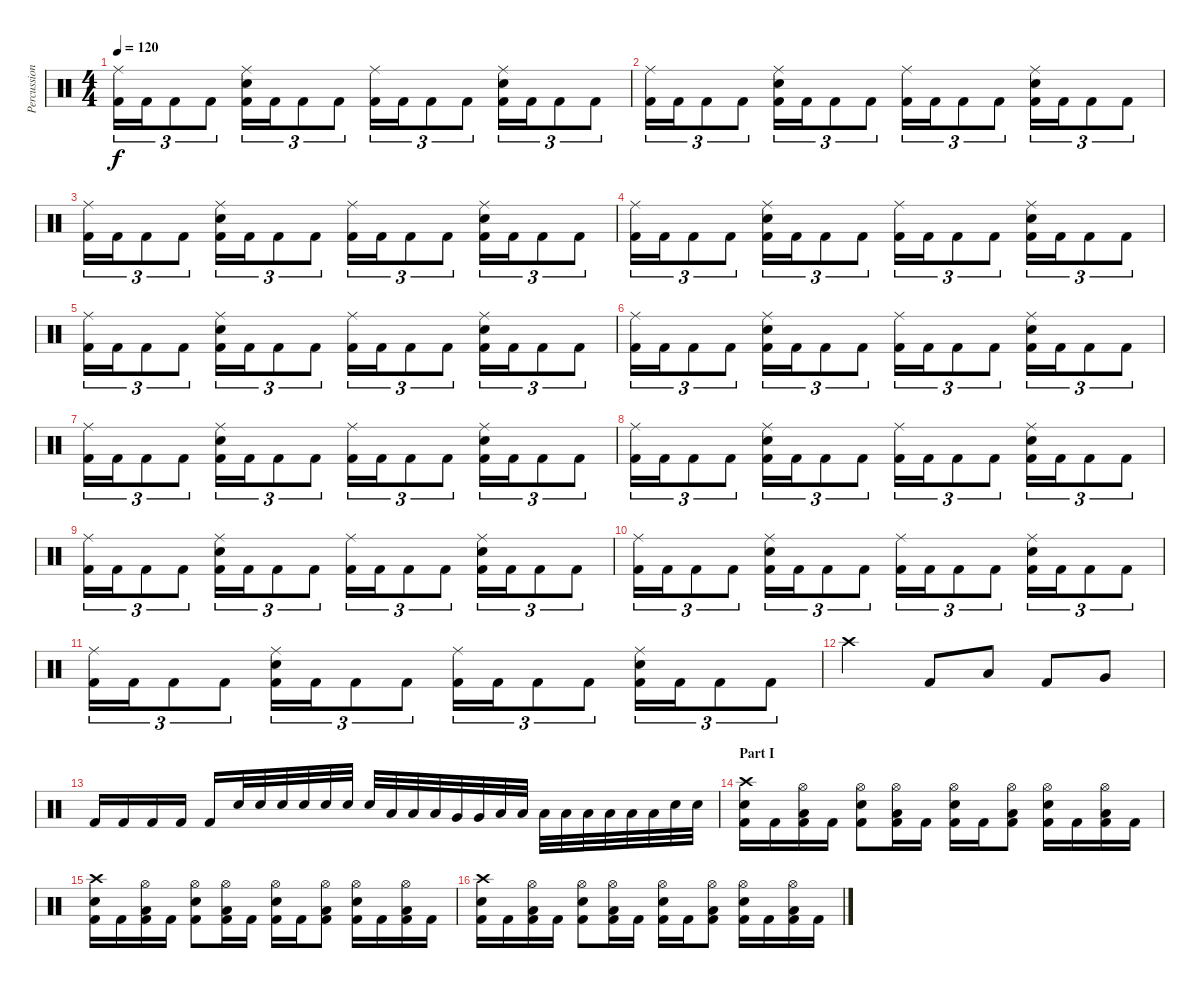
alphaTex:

\track ("Percussion" "Percussion") {instrument percussion}
\staff {score}
\articulation defaults
\ts (4 4)
\tempo 120
\clef neutral
\ks c
("Ride (middle)" "Kick (hit) 2").16{tu (3 2) dy f} "Kick (hit) 2".16{tu (3 2)} "Kick (hit) 2".8{tu (3 2)} "Kick (hit) 2".8{tu (3 2)} ("Ride (middle)" "Electric Snare (hit)" "Kick (hit) 2").16{tu (3 2)} "Kick (hit) 2".16{tu (3 2)} "Kick (hit) 2".8{tu (3 2)} "Kick (hit) 2".8{tu (3 2)} ("Ride (middle)" "Kick (hit) 2").16{tu (3 2)} "Kick (hit) 2".16{tu (3 2)} "Kick (hit) 2".8{tu (3 2)} "Kick (hit) 2".8{tu (3 2)} ("Ride (middle)" "Electric Snare (hit)" "Kick (hit) 2").16{tu (3 2)} "Kick (hit) 2".16{tu (3 2)} "Kick (hit) 2".8{tu (3 2)} "Kick (hit) 2".8{tu (3 2)} |
("Ride (middle)" "Kick (hit) 2").16{tu (3 2)} "Kick (hit) 2".16{tu (3 2)} "Kick (hit) 2".8{tu (3 2)} "Kick (hit) 2".8{tu (3 2)} ("Ride (middle)" "Electric Snare (hit)" "Kick (hit) 2").16{tu (3 2)} "Kick (hit) 2".16{tu (3 2)} "Kick (hit) 2".8{tu (3 2)} "Kick (hit) 2".8{tu (3 2)} ("Ride (middle)" "Kick (hit) 2").16{tu (3 2)} "Kick (hit) 2".16{tu (3 2)} "Kick (hit) 2".8{tu (3 2)} "Kick (hit) 2".8{tu (3 2)} ("Ride (middle)" "Electric Snare (hit)" "Kick (hit) 2").16{tu (3 2)} "Kick (hit) 2".16{tu (3 2)} "Kick (hit) 2".8{tu (3 2)} "Kick (hit) 2".8{tu (3 2)} |
("Ride (middle)" "Kick (hit) 2").16{tu (3 2)} "Kick (hit) 2".16{tu (3 2)} "Kick (hit) 2".8{tu (3 2)} "Kick (hit) 2".8{tu (3 2)} ("Ride (middle)" "Electric Snare (hit)" "Kick (hit) 2").16{tu (3 2)} "Kick (hit) 2".16{tu (3 2)} "Kick (hit) 2".8{tu (3 2)} "Kick (hit) 2".8{tu (3 2)} ("Ride (middle)" "Kick (hit) 2").16{tu (3 2)} "Kick (hit) 2".16{tu (3 2)} "Kick (hit) 2".8{tu (3 2)} "Kick (hit) 2".8{tu (3 2)} ("Ride (middle)" "Electric Snare (hit)" "Kick (hit) 2").16{tu (3 2)} "Kick (hit) 2".16{tu (3 2)} "Kick (hit) 2".8{tu (3 2)} "Kick (hit) 2".8{tu (3 2)} |
("Ride (middle)" "Kick (hit) 2").16{tu (3 2)} "Kick (hit) 2".16{tu (3 2)} "Kick (hit) 2".8{tu (3 2)} "Kick (hit) 2".8{tu (3 2)} ("Ride (middle)" "Electric Snare (hit)" "Kick (hit) 2").16{tu (3 2)} "Kick (hit) 2".16{tu (3 2)} "Kick (hit) 2".8{tu (3 2)} "Kick (hit) 2".8{tu (3 2)} ("Ride (middle)" "Kick (hit) 2").16{tu (3 2)} "Kick (hit) 2".16{tu (3 2)} "Kick (hit) 2".8{tu (3 2)} "Kick (hit) 2".8{tu (3 2)} ("Ride (middle)" "Electric Snare (hit)" "Kick (hit) 2").16{tu (3 2)} "Kick (hit) 2".16{tu (3 2)} "Kick (hit) 2".8{tu (3 2)} "Kick (hit) 2".8{tu (3 2)} |
("Ride (middle)" "Kick (hit) 2").16{tu (3 2)} "Kick (hit) 2".16{tu (3 2)} "Kick (hit) 2".8{tu (3 2)} "Kick (hit) 2".8{tu (3 2)} ("Ride (middle)" "Electric Snare (hit)" "Kick (hit) 2").16{tu (3 2)} "Kick (hit) 2".16{tu (3 2)} "Kick (hit) 2".8{tu (3 2)} "Kick (hit) 2".8{tu (3 2)} ("Ride (middle)" "Kick (hit) 2").16{tu (3 2)} "Kick (hit) 2".16{tu (3 2)} "Kick (hit) 2".8{tu (3 2)} "Kick (hit) 2".8{tu (3 2)} ("Ride (middle)" "Electric Snare (hit)" "Kick (hit) 2").16{tu (3 2)} "Kick (hit) 2".16{tu (3 2)} "Kick (hit) 2".8{tu (3 2)} "Kick (hit) 2".8{tu (3 2)} |
("Ride (middle)" "Kick (hit) 2").16{tu (3 2)} "Kick (hit) 2".16{tu (3 2)} "Kick (hit) 2".8{tu (3 2)} "Kick (hit) 2".8{tu (3 2)} ("Ride (middle)" "Electric Snare (hit)" "Kick (hit) 2").16{tu (3 2)} "Kick (hit) 2".16{tu (3 2)} "Kick (hit) 2".8{tu (3 2)} "Kick (hit) 2".8{tu (3 2)} ("Ride (middle)" "Kick (hit) 2").16{tu (3 2)} "Kick (hit) 2".16{tu (3 2)} "Kick (hit) 2".8{tu (3 2)} "Kick (hit) 2".8{tu (3 2)} ("Ride (middle)" "Electric Snare (hit)" "Kick (hit) 2").16{tu (3 2)} "Kick (hit) 2".16{tu (3 2)} "Kick (hit) 2".8{tu (3 2)} "Kick (hit) 2".8{tu (3 2)} |
("Ride (middle)" "Kick (hit) 2").16{tu (3 2)} "Kick (hit) 2".16{tu (3 2)} "Kick (hit) 2".8{tu (3 2)} "Kick (hit) 2".8{tu (3 2)} ("Ride (middle)" "Electric Snare (hit)" "Kick (hit) 2").16{tu (3 2)} "Kick (hit) 2".16{tu (3 2)} "Kick (hit) 2".8{tu (3 2)} "Kick (hit) 2".8{tu (3 2)} ("Ride (middle)" "Kick (hit) 2").16{tu (3 2)} "Kick (hit) 2".16{tu (3 2)} "Kick (hit) 2".8{tu (3 2)} "Kick (hit) 2".8{tu (3 2)} ("Ride (middle)" "Electric Snare (hit)" "Kick (hit) 2").16{tu (3 2)} "Kick (hit) 2".16{tu (3 2)} "Kick (hit) 2".8{tu (3 2)} "Kick (hit) 2".8{tu (3 2)} |
("Ride (middle)" "Kick (hit) 2").16{tu (3 2)} "Kick (hit) 2".16{tu (3 2)} "Kick (hit) 2".8{tu (3 2)} "Kick (hit) 2".8{tu (3 2)} ("Ride (middle)" "Electric Snare (hit)" "Kick (hit) 2").16{tu (3 2)} "Kick (hit) 2".16{tu (3 2)} "Kick (hit) 2".8{tu (3 2)} "Kick (hit) 2".8{tu (3 2)} ("Ride (middle)" "Kick (hit) 2").16{tu (3 2)} "Kick (hit) 2".16{tu (3 2)} "Kick (hit) 2".8{tu (3 2)} "Kick (hit) 2".8{tu (3 2)} ("Ride (middle)" "Electric Snare (hit)" "Kick (hit) 2").16{tu (3 2)} "Kick (hit) 2".16{tu (3 2)} "Kick (hit) 2".8{tu (3 2)} "Kick (hit) 2".8{tu (3 2)} |
("Ride (middle)" "Kick (hit) 2").16{tu (3 2)} "Kick (hit) 2".16{tu (3 2)} "Kick (hit) 2".8{tu (3 2)} "Kick (hit) 2".8{tu (3 2)} ("Ride (middle)" "Electric Snare (hit)" "Kick (hit) 2").16{tu (3 2)} "Kick (hit) 2".16{tu (3 2)} "Kick (hit) 2".8{tu (3 2)} "Kick (hit) 2".8{tu (3 2)} ("Ride (middle)" "Kick (hit) 2").16{tu (3 2)} "Kick (hit) 2".16{tu (3 2)} "Kick (hit) 2".8{tu (3 2)} "Kick (hit) 2".8{tu (3 2)} ("Ride (middle)" "Electric Snare (hit)" "Kick (hit) 2").16{tu (3 2)} "Kick (hit) 2".16{tu (3 2)} "Kick (hit) 2".8{tu (3 2)} "Kick (hit) 2".8{tu (3 2)} |
("Ride (middle)" "Kick (hit) 2").16{tu (3 2)} "Kick (hit) 2".16{tu (3 2)} "Kick (hit) 2".8{tu (3 2)} "Kick (hit) 2".8{tu (3 2)} ("Ride (middle)" "Electric Snare (hit)" "Kick (hit) 2").16{tu (3 2)} "Kick (hit) 2".16{tu (3 2)} "Kick (hit) 2".8{tu (3 2)} "Kick (hit) 2".8{tu (3 2)} ("Ride (middle)" "Kick (hit) 2").16{tu (3 2)} "Kick (hit) 2".16{tu (3 2)} "Kick (hit) 2".8{tu (3 2)} "Kick (hit) 2".8{tu (3 2)} ("Ride (middle)" "Electric Snare (hit)" "Kick (hit) 2").16{tu (3 2)} "Kick (hit) 2".16{tu (3 2)} "Kick (hit) 2".8{tu (3 2)} "Kick (hit) 2".8{tu (3 2)} |
("Ride (middle)" "Kick (hit) 2").16{tu (3 2)} "Kick (hit) 2".16{tu (3 2)} "Kick (hit) 2".8{tu (3 2)} "Kick (hit) 2".8{tu (3 2)} ("Ride (middle)" "Electric Snare (hit)" "Kick (hit) 2").16{tu (3 2)} "Kick (hit) 2".16{tu (3 2)} "Kick (hit) 2".8{tu (3 2)} "Kick (hit) 2".8{tu (3 2)} ("Ride (middle)" "Kick (hit) 2").16{tu (3 2)} "Kick (hit) 2".16{tu (3 2)} "Kick (hit) 2".8{tu (3 2)} "Kick (hit) 2".8{tu (3 2)} ("Ride (middle)" "Electric Snare (hit)" "Kick (hit) 2").16{tu (3 2)} "Kick (hit) 2".16{tu (3 2)} "Kick (hit) 2".8{tu (3 2)} "Kick (hit) 2".8{tu (3 2)} |
"Crash high (hit)".2 "Kick (hit) 2".8 "Low Tom (hit)".8 "Kick (hit) 2".8 "Very Low Tom (hit)".8 |
"Kick (hit) 2".16 "Kick (hit) 2".16 "Kick (hit) 2".16 "Kick (hit) 2".16 "Kick (hit) 2".16 "Electric Snare (hit)".32 "Electric Snare (hit)".32 "Electric Snare (hit)".32 "Electric Snare (hit)".32 "Electric Snare (hit)".32 "Electric Snare (hit)".32 "Electric Snare (hit)".32 "Low Tom (hit)".32 "Low Tom (hit)".32 "Low Tom (hit)".32 "Very Low Tom (hit)".32 "Very Low Tom (hit)".32 "Low Floor Tom (hit)".32 "Low Floor Tom (hit)".32 "Low Floor Tom (hit)".32 "Low Floor Tom (hit)".32 "Low Floor Tom (hit)".32 "Low Floor Tom (hit)".32 "Low Tom (hit)".32 "Low Tom (hit)".32 "Electric Snare (hit)".32 "Electric Snare (hit)".32 |
\section ("" "Part I")
("Crash high (hit)" "Electric Snare (hit)" "Kick (hit) 2").16 "Kick (hit) 2".16 ("Hi-Hat (open)" "Low Floor Tom (hit)" "Kick (hit) 2").16 "Kick (hit) 2".16 ("Hi-Hat (open)" "Electric Snare (hit)" "Kick (hit) 2").8 ("Hi-Hat (open)" "Low Floor Tom (hit)" "Kick (hit) 2").16 "Kick (hit) 2".16 ("Hi-Hat (open)" "Electric Snare (hit)" "Kick (hit) 2").16 "Kick (hit) 2".16 ("Hi-Hat (open)" "Low Floor Tom (hit)" "Kick (hit) 2").8 ("Hi-Hat (open)" "Electric Snare (hit)" "Kick (hit) 2").16 "Kick (hit) 2".16 ("Hi-Hat (open)" "Low Floor Tom (hit)" "Kick (hit) 2").16 "Kick (hit) 2".16 |
("Crash high (hit)" "Electric Snare (hit)" "Kick (hit) 2").16 "Kick (hit) 2".16 ("Hi-Hat (open)" "Low Floor Tom (hit)" "Kick (hit) 2").16 "Kick (hit) 2".16 ("Hi-Hat (open)" "Electric Snare (hit)" "Kick (hit) 2").8 ("Hi-Hat (open)" "Low Floor Tom (hit)" "Kick (hit) 2").16 "Kick (hit) 2".16 ("Hi-Hat (open)" "Electric Snare (hit)" "Kick (hit) 2").16 "Kick (hit) 2".16 ("Hi-Hat (open)" "Low Floor Tom (hit)" "Kick (hit) 2").8 ("Hi-Hat (open)" "Electric Snare (hit)" "Kick (hit) 2").16 "Kick (hit) 2".16 ("Hi-Hat (open)" "Low Floor Tom (hit)" "Kick (hit) 2").16 "Kick (hit) 2".16 |
("Crash high (hit)" "Electric Snare (hit)" "Kick (hit) 2").16 "Kick (hit) 2".16 ("Hi-Hat (open)" "Low Floor Tom (hit)" "Kick (hit) 2").16 "Kick (hit) 2".16 ("Hi-Hat (open)" "Electric Snare (hit)" "Kick (hit) 2").8 ("Hi-Hat (open)" "Low Floor Tom (hit)" "Kick (hit) 2").16 "Kick (hit) 2".16 ("Hi-Hat (open)" "Electric Snare (hit)" "Kick (hit) 2").16 "Kick (hit) 2".16 ("Hi-Hat (open)" "Low Floor Tom (hit)" "Kick (hit) 2").8 ("Hi-Hat (open)" "Electric Snare (hit)" "Kick (hit) 2").16 "Kick (hit) 2".16 ("Hi-Hat (open)" "Low Floor Tom (hit)" "Kick (hit) 2").16 "Kick (hit) 2".16
